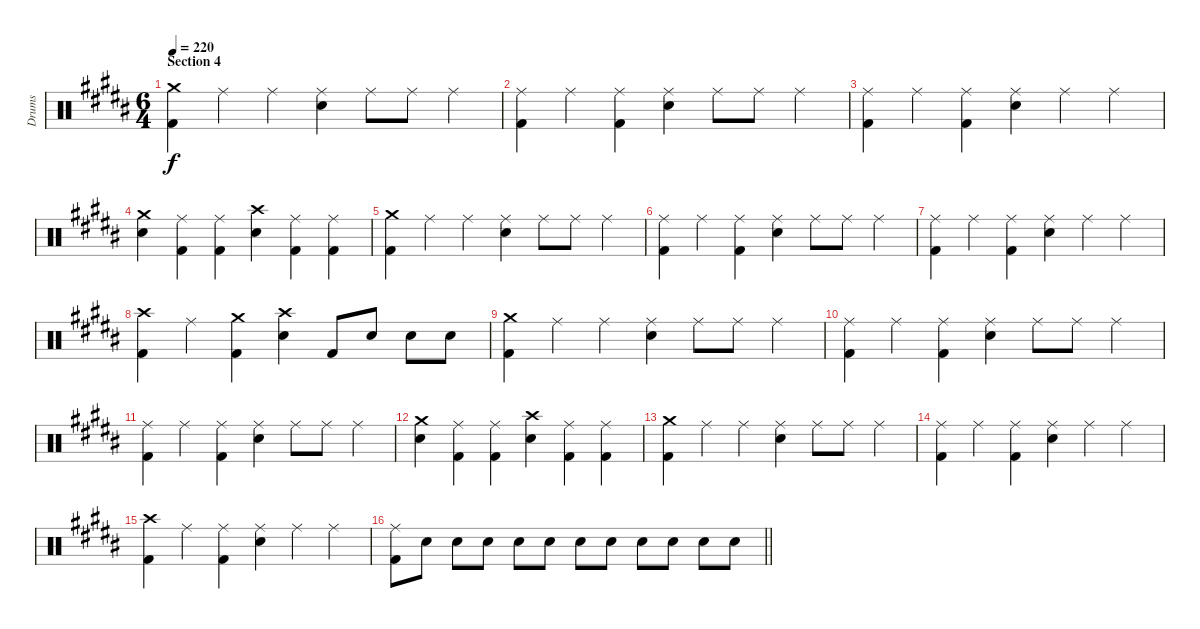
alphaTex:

\track ("Drums" "Drums") {instrument percussion}
\staff {score}
\articulation defaults
\ts (6 4)
\section ("" "Section 4")
\tempo 220
\clef neutral
\ks g#minor
("Crash medium (hit)" "Kick (hit) 2").4{dy f} "Ride (middle)".4 "Ride (middle)".4 ("Ride (middle)" "Electric Snare (hit)").4 "Ride (middle)".8 "Ride (middle)".8 "Ride (middle)".4 |
("Ride (middle)" "Kick (hit) 2").4 "Ride (middle)".4 ("Ride (middle)" "Kick (hit) 2").4 ("Ride (middle)" "Electric Snare (hit)").4 "Ride (middle)".8 "Ride (middle)".8 "Ride (middle)".4 |
("Ride (middle)" "Kick (hit) 2").4 "Ride (middle)".4 ("Ride (middle)" "Kick (hit) 2").4 ("Ride (middle)" "Electric Snare (hit)").4 "Ride (middle)".4 "Ride (middle)".4 |
("Crash medium (hit)" "Electric Snare (hit)").4 ("Ride (middle)" "Kick (hit) 2").4 ("Ride (middle)" "Kick (hit) 2").4 ("Crash high (hit)" "Electric Snare (hit)").4 ("Ride (middle)" "Kick (hit) 2").4 ("Ride (middle)" "Kick (hit) 2").4 |
("Crash medium (hit)" "Kick (hit) 2").4 "Ride (middle)".4 "Ride (middle)".4 ("Ride (middle)" "Electric Snare (hit)").4 "Ride (middle)".8 "Ride (middle)".8 "Ride (middle)".4 |
("Ride (middle)" "Kick (hit) 2").4 "Ride (middle)".4 ("Ride (middle)" "Kick (hit) 2").4 ("Ride (middle)" "Electric Snare (hit)").4 "Ride (middle)".8 "Ride (middle)".8 "Ride (middle)".4 |
("Ride (middle)" "Kick (hit) 2").4 "Ride (middle)".4 ("Ride (middle)" "Kick (hit) 2").4 ("Ride (middle)" "Electric Snare (hit)").4 "Ride (middle)".4 "Ride (middle)".4 |
("Crash high (hit)" "Kick (hit) 2").4 "Ride (middle)".4 ("Crash medium (hit)" "Kick (hit) 2").4 ("Crash high (hit)" "Electric Snare (hit)").4 "Kick (hit) 2".8 "Electric Snare (hit)".8 "Electric Snare (hit)".8 "Electric Snare (hit)".8 |
("Crash medium (hit)" "Kick (hit) 2").4 "Ride (middle)".4 "Ride (middle)".4 ("Ride (middle)" "Electric Snare (hit)").4 "Ride (middle)".8 "Ride (middle)".8 "Ride (middle)".4 |
("Ride (middle)" "Kick (hit) 2").4 "Ride (middle)".4 ("Ride (middle)" "Kick (hit) 2").4 ("Ride (middle)" "Electric Snare (hit)").4 "Ride (middle)".8 "Ride (middle)".8 "Ride (middle)".4 |
("Ride (middle)" "Kick (hit) 2").4 "Ride (middle)".4 ("Ride (middle)" "Kick (hit) 2").4 ("Ride (middle)" "Electric Snare (hit)").4 "Ride (middle)".8 "Ride (middle)".8 "Ride (middle)".4 |
("Crash medium (hit)" "Electric Snare (hit)").4 ("Ride (middle)" "Kick (hit) 2").4 ("Ride (middle)" "Kick (hit) 2").4 ("Crash high (hit)" "Electric Snare (hit)").4 ("Ride (middle)" "Kick (hit) 2").4 ("Ride (middle)" "Kick (hit) 2").4 |
("Crash medium (hit)" "Kick (hit) 2").4 "Ride (middle)".4 "Ride (middle)".4 ("Ride (middle)" "Electric Snare (hit)").4 "Ride (middle)".8 "Ride (middle)".8 "Ride (middle)".4 |
("Ride (middle)" "Kick (hit) 2").4 "Ride (middle)".4 ("Ride (middle)" "Kick (hit) 2").4 ("Ride (middle)" "Electric Snare (hit)").4 "Ride (middle)".4 "Ride (middle)".4 |
("Crash high (hit)" "Kick (hit) 2").4 "Ride (middle)".4 ("Ride (middle)" "Kick (hit) 2").4 ("Ride (middle)" "Electric Snare (hit)").4 "Ride (middle)".4 "Ride (middle)".4 |
\barLineRight lightlight
("Ride (middle)" "Kick (hit) 2").8 "Electric Snare (hit)".8 "Electric Snare (hit)".8 "Electric Snare (hit)".8 "Electric Snare (hit)".8 "Electric Snare (hit)".8 "Electric Snare (hit)".8 "Electric Snare (hit)".8 "Electric Snare (hit)".8 "Electric Snare (hit)".8 "Electric Snare (hit)".8 "Electric Snare (hit)".8
